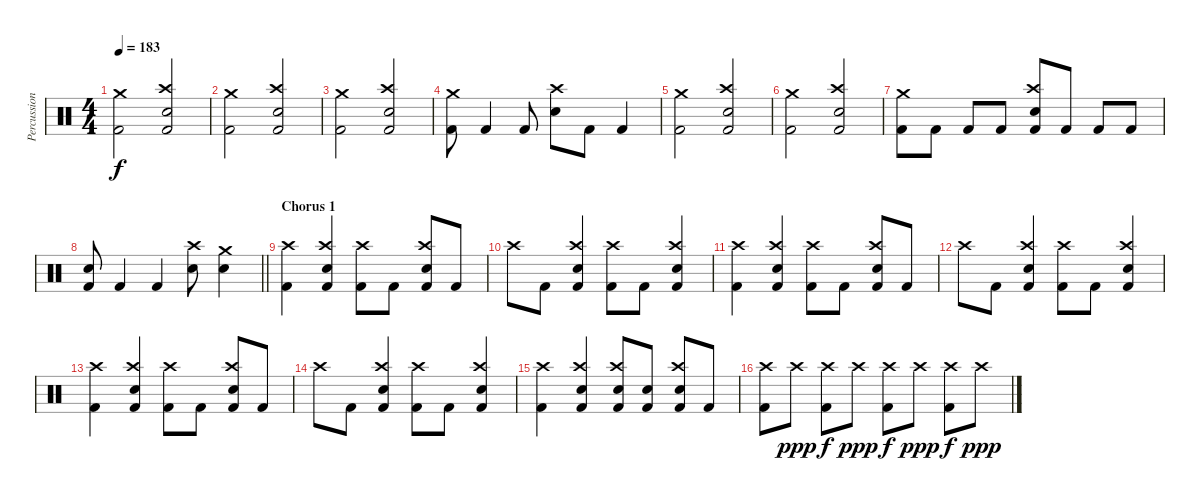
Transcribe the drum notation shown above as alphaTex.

\track ("Percussion" "Percussion") {instrument percussion}
\staff {score}
\articulation defaults
\ts (4 4)
\tempo 183
\clef neutral
\ks aminor
("Crash medium (hit)" "Kick (hit) 2").2{dy f} ("Crash high (hit)" "Electric Snare (hit)" "Kick (hit) 2").2 |
("Crash medium (hit)" "Kick (hit) 2").2 ("Crash high (hit)" "Electric Snare (hit)" "Kick (hit) 2").2 |
("Crash medium (hit)" "Kick (hit) 2").2 ("Crash high (hit)" "Electric Snare (hit)" "Kick (hit) 2").2 |
("Crash medium (hit)" "Kick (hit) 2").8 "Kick (hit) 2".4 "Kick (hit) 2".8 ("Crash high (hit)" "Electric Snare (hit)").8 "Kick (hit) 2".8 "Kick (hit) 2".4 |
("Crash medium (hit)" "Kick (hit) 2").2 ("Crash high (hit)" "Electric Snare (hit)" "Kick (hit) 2").2 |
("Crash medium (hit)" "Kick (hit) 2").2 ("Crash high (hit)" "Electric Snare (hit)" "Kick (hit) 2").2 |
("Crash medium (hit)" "Kick (hit) 2").8 "Kick (hit) 2".8 "Kick (hit) 2".8 "Kick (hit) 2".8 ("Crash high (hit)" "Electric Snare (hit)" "Kick (hit) 2").8 "Kick (hit) 2".8 "Kick (hit) 2".8 "Kick (hit) 2".8 |
\barLineRight lightlight
("Electric Snare (hit)" "Kick (hit) 2").8 "Kick (hit) 2".4 "Kick (hit) 2".4 ("Crash high (hit)" "Electric Snare (hit)").8 ("Crash medium (hit)" "Electric Snare (hit)").4 |
\section ("" "Chorus 1")
("Crash high (hit)" "Kick (hit) 2").4 ("Crash high (hit)" "Electric Snare (hit)" "Kick (hit) 2").4 ("Crash high (hit)" "Kick (hit) 2").8 "Kick (hit) 2".8 ("Crash high (hit)" "Electric Snare (hit)" "Kick (hit) 2").8 "Kick (hit) 2".8 |
"Crash high (hit)".8 "Kick (hit) 2".8 ("Crash high (hit)" "Electric Snare (hit)" "Kick (hit) 2").4 ("Crash high (hit)" "Kick (hit) 2").8 "Kick (hit) 2".8 ("Crash high (hit)" "Electric Snare (hit)" "Kick (hit) 2").4 |
("Crash high (hit)" "Kick (hit) 2").4 ("Crash high (hit)" "Electric Snare (hit)" "Kick (hit) 2").4 ("Crash high (hit)" "Kick (hit) 2").8 "Kick (hit) 2".8 ("Crash high (hit)" "Electric Snare (hit)" "Kick (hit) 2").8 "Kick (hit) 2".8 |
"Crash high (hit)".8 "Kick (hit) 2".8 ("Crash high (hit)" "Electric Snare (hit)" "Kick (hit) 2").4 ("Crash high (hit)" "Kick (hit) 2").8 "Kick (hit) 2".8 ("Crash high (hit)" "Electric Snare (hit)" "Kick (hit) 2").4 |
("Crash high (hit)" "Kick (hit) 2").4 ("Crash high (hit)" "Electric Snare (hit)" "Kick (hit) 2").4 ("Crash high (hit)" "Kick (hit) 2").8 "Kick (hit) 2".8 ("Crash high (hit)" "Electric Snare (hit)" "Kick (hit) 2").8 "Kick (hit) 2".8 |
"Crash high (hit)".8 "Kick (hit) 2".8 ("Crash high (hit)" "Electric Snare (hit)" "Kick (hit) 2").4 ("Crash high (hit)" "Kick (hit) 2").8 "Kick (hit) 2".8 ("Crash high (hit)" "Electric Snare (hit)" "Kick (hit) 2").4 |
("Crash high (hit)" "Kick (hit) 2").4 ("Crash high (hit)" "Electric Snare (hit)" "Kick (hit) 2").4 ("Crash high (hit)" "Electric Snare (hit)" "Kick (hit) 2").8 ("Electric Snare (hit)" "Kick (hit) 2").8 ("Crash high (hit)" "Electric Snare (hit)" "Kick (hit) 2").8 "Kick (hit) 2".8 |
("Crash high (hit)" "Kick (hit) 2").8 "Crash high (hit)".8{dy ppp} ("Crash high (hit)" "Kick (hit) 2").8{dy f} "Crash high (hit)".8{dy ppp} ("Crash high (hit)" "Kick (hit) 2").8{dy f} "Crash high (hit)".8{dy ppp} ("Crash high (hit)" "Kick (hit) 2").8{dy f} "Crash high (hit)".8{dy ppp}
